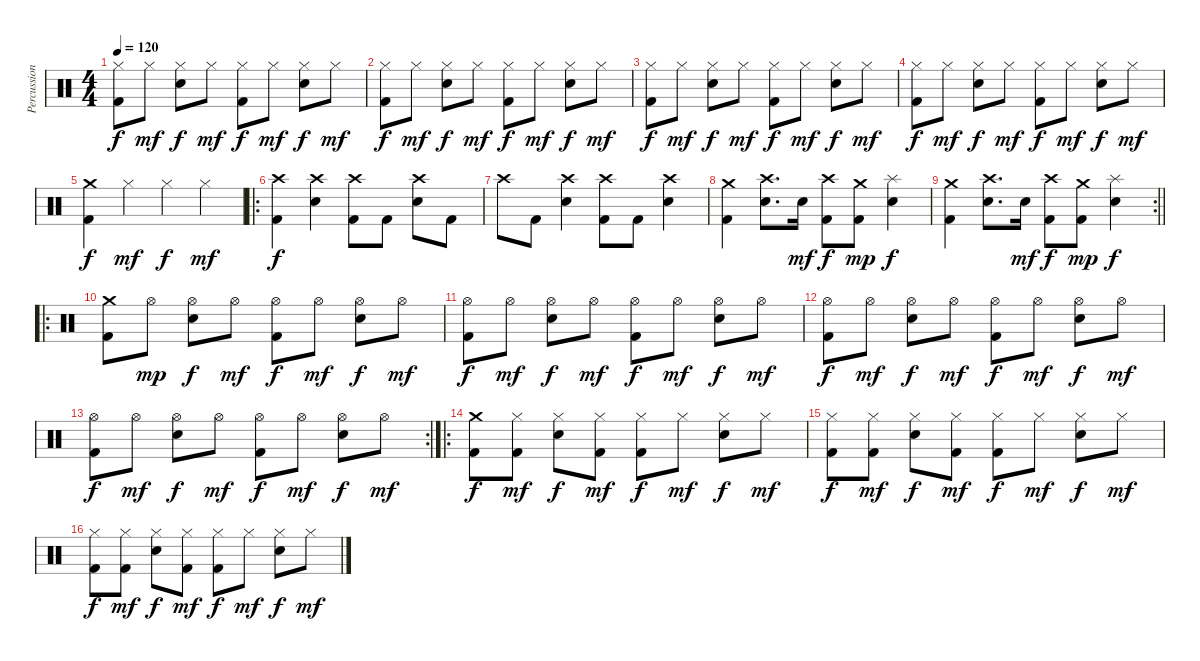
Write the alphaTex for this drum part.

\track ("Percussion" "Percussion") {instrument percussion}
\staff {score}
\articulation defaults
\ts (4 4)
\tempo 120
\clef neutral
\ks c
("Hi-Hat (closed)" "Kick (hit) 2").8{dy f} "Hi-Hat (closed)".8{dy mf} ("Hi-Hat (closed)" "Electric Snare (hit)").8{dy f} "Hi-Hat (closed)".8{dy mf} ("Hi-Hat (closed)" "Kick (hit) 2").8{dy f} "Hi-Hat (closed)".8{dy mf} ("Hi-Hat (closed)" "Electric Snare (hit)").8{dy f} "Hi-Hat (closed)".8{dy mf} |
("Hi-Hat (closed)" "Kick (hit) 2").8{dy f} "Hi-Hat (closed)".8{dy mf} ("Hi-Hat (closed)" "Electric Snare (hit)").8{dy f} "Hi-Hat (closed)".8{dy mf} ("Hi-Hat (closed)" "Kick (hit) 2").8{dy f} "Hi-Hat (closed)".8{dy mf} ("Hi-Hat (closed)" "Electric Snare (hit)").8{dy f} "Hi-Hat (closed)".8{dy mf} |
("Hi-Hat (closed)" "Kick (hit) 2").8{dy f} "Hi-Hat (closed)".8{dy mf} ("Hi-Hat (closed)" "Electric Snare (hit)").8{dy f} "Hi-Hat (closed)".8{dy mf} ("Hi-Hat (closed)" "Kick (hit) 2").8{dy f} "Hi-Hat (closed)".8{dy mf} ("Hi-Hat (closed)" "Electric Snare (hit)").8{dy f} "Hi-Hat (closed)".8{dy mf} |
("Hi-Hat (closed)" "Kick (hit) 2").8{dy f} "Hi-Hat (closed)".8{dy mf} ("Hi-Hat (closed)" "Electric Snare (hit)").8{dy f} "Hi-Hat (closed)".8{dy mf} ("Hi-Hat (closed)" "Kick (hit) 2").8{dy f} "Hi-Hat (closed)".8{dy mf} ("Hi-Hat (closed)" "Electric Snare (hit)").8{dy f} "Hi-Hat (closed)".8{dy mf} |
("Crash medium (hit)" "Kick (hit) 2").4{dy f} "Hi-Hat (closed)".4{dy mf} "Hi-Hat (closed)".4{dy f} "Hi-Hat (closed)".4{dy mf} |
\ro
("Crash high (hit)" "Kick (hit) 2").4{dy f} ("Crash high (hit)" "Electric Snare (hit)").4 ("Crash high (hit)" "Kick (hit) 2").8 "Kick (hit) 2".8 ("Crash high (hit)" "Electric Snare (hit)").8 "Kick (hit) 2".8 |
"Crash high (hit)".8 "Kick (hit) 2".8 ("Crash high (hit)" "Electric Snare (hit)").4 ("Crash high (hit)" "Kick (hit) 2").8 "Kick (hit) 2".8 ("Crash high (hit)" "Electric Snare (hit)").4 |
("Crash medium (hit)" "Kick (hit) 2").4 ("Crash high (hit)" "Electric Snare (hit)").8{d} "Electric Snare (hit)".16{dy mf} ("Crash high (hit)" "Kick (hit) 2").8{dy f} ("Crash medium (hit)" "Kick (hit) 2").8{dy mp} ("Splash (hit)" "Electric Snare (hit)").4{dy f} |
\rc 2
\barLineRight lightlight
("Crash medium (hit)" "Kick (hit) 2").4 ("Crash high (hit)" "Electric Snare (hit)").8{d} "Electric Snare (hit)".16{dy mf} ("Crash high (hit)" "Kick (hit) 2").8{dy f} ("Crash medium (hit)" "Kick (hit) 2").8{dy mp} ("Splash (hit)" "Electric Snare (hit)").4{dy f} |
\ro
("Crash medium (hit)" "Kick (hit) 2").8 "Hi-Hat (open)".8{dy mp} ("Hi-Hat (open)" "Electric Snare (hit)").8{dy f} "Hi-Hat (open)".8{dy mf} ("Hi-Hat (open)" "Kick (hit) 2").8{dy f} "Hi-Hat (open)".8{dy mf} ("Hi-Hat (open)" "Electric Snare (hit)").8{dy f} "Hi-Hat (open)".8{dy mf} |
("Hi-Hat (open)" "Kick (hit) 2").8{dy f} "Hi-Hat (open)".8{dy mf} ("Hi-Hat (open)" "Electric Snare (hit)").8{dy f} "Hi-Hat (open)".8{dy mf} ("Hi-Hat (open)" "Kick (hit) 2").8{dy f} "Hi-Hat (open)".8{dy mf} ("Hi-Hat (open)" "Electric Snare (hit)").8{dy f} "Hi-Hat (open)".8{dy mf} |
("Hi-Hat (open)" "Kick (hit) 2").8{dy f} "Hi-Hat (open)".8{dy mf} ("Hi-Hat (open)" "Electric Snare (hit)").8{dy f} "Hi-Hat (open)".8{dy mf} ("Hi-Hat (open)" "Kick (hit) 2").8{dy f} "Hi-Hat (open)".8{dy mf} ("Hi-Hat (open)" "Electric Snare (hit)").8{dy f} "Hi-Hat (open)".8{dy mf} |
\rc 2
("Hi-Hat (open)" "Kick (hit) 2").8{dy f} "Hi-Hat (open)".8{dy mf} ("Hi-Hat (open)" "Electric Snare (hit)").8{dy f} "Hi-Hat (open)".8{dy mf} ("Hi-Hat (open)" "Kick (hit) 2").8{dy f} "Hi-Hat (open)".8{dy mf} ("Hi-Hat (open)" "Electric Snare (hit)").8{dy f} "Hi-Hat (open)".8{dy mf} |
\ro
("Crash medium (hit)" "Kick (hit) 2").8{dy f} ("Hi-Hat (closed)" "Kick (hit) 2").8{dy mf} ("Hi-Hat (closed)" "Electric Snare (hit)").8{dy f} ("Hi-Hat (closed)" "Kick (hit) 2").8{dy mf} ("Hi-Hat (closed)" "Kick (hit) 2").8{dy f} "Hi-Hat (closed)".8{dy mf} ("Hi-Hat (closed)" "Electric Snare (hit)").8{dy f} "Hi-Hat (closed)".8{dy mf} |
("Hi-Hat (closed)" "Kick (hit) 2").8{dy f} ("Hi-Hat (closed)" "Kick (hit) 2").8{dy mf} ("Hi-Hat (closed)" "Electric Snare (hit)").8{dy f} ("Hi-Hat (closed)" "Kick (hit) 2").8{dy mf} ("Hi-Hat (closed)" "Kick (hit) 2").8{dy f} "Hi-Hat (closed)".8{dy mf} ("Hi-Hat (closed)" "Electric Snare (hit)").8{dy f} "Hi-Hat (closed)".8{dy mf} |
("Hi-Hat (closed)" "Kick (hit) 2").8{dy f} ("Hi-Hat (closed)" "Kick (hit) 2").8{dy mf} ("Hi-Hat (closed)" "Electric Snare (hit)").8{dy f} ("Hi-Hat (closed)" "Kick (hit) 2").8{dy mf} ("Hi-Hat (closed)" "Kick (hit) 2").8{dy f} "Hi-Hat (closed)".8{dy mf} ("Hi-Hat (closed)" "Electric Snare (hit)").8{dy f} "Hi-Hat (closed)".8{dy mf}
